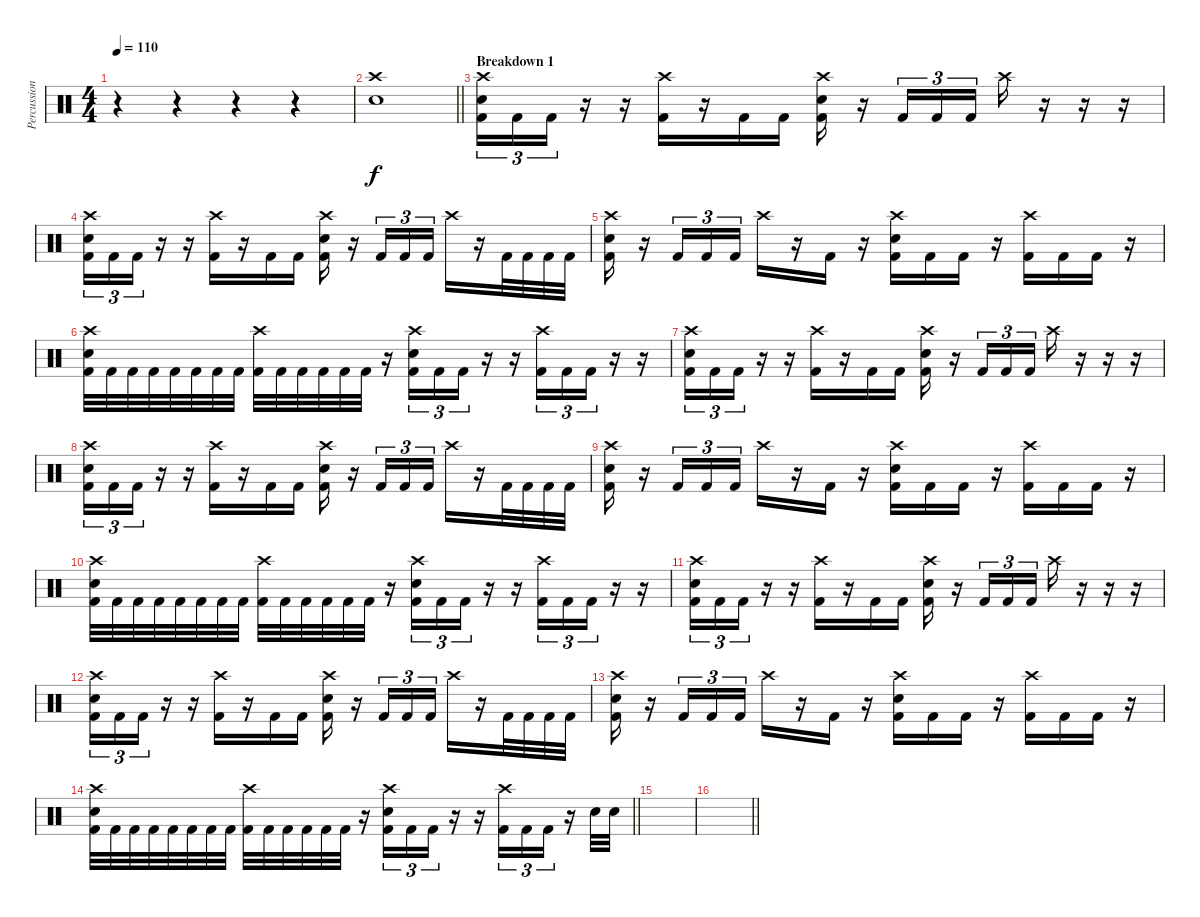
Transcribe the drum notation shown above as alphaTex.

\track ("Percussion" "Percussion") {instrument percussion}
\staff {score}
\articulation defaults
\ts (4 4)
\tempo 110
\clef neutral
\ks c
r.4{dy f} r.4 r.4 r.4 |
\barLineRight lightlight
("Crash high (hit)" "Electric Snare (hit)").1 |
\section ("" "Breakdown 1")
("Crash high (hit)" "Electric Snare (hit)" "Kick (hit) 2").16{tu (3 2)} "Kick (hit) 2".16{tu (3 2)} "Kick (hit) 2".16{tu (3 2)} r.16 r.16 ("Crash high (hit)" "Kick (hit) 2").16 r.16 "Kick (hit) 2".16 "Kick (hit) 2".16 ("Crash high (hit)" "Electric Snare (hit)" "Kick (hit) 2").16 r.16 "Kick (hit) 2".16{tu (3 2)} "Kick (hit) 2".16{tu (3 2)} "Kick (hit) 2".16{tu (3 2)} "Crash high (hit)".16 r.16 r.16 r.16 |
("Crash high (hit)" "Electric Snare (hit)" "Kick (hit) 2").16{tu (3 2)} "Kick (hit) 2".16{tu (3 2)} "Kick (hit) 2".16{tu (3 2)} r.16 r.16 ("Crash high (hit)" "Kick (hit) 2").16 r.16 "Kick (hit) 2".16 "Kick (hit) 2".16 ("Crash high (hit)" "Electric Snare (hit)" "Kick (hit) 2").16 r.16 "Kick (hit) 2".16{tu (3 2)} "Kick (hit) 2".16{tu (3 2)} "Kick (hit) 2".16{tu (3 2)} "Crash high (hit)".16 r.16 "Kick (hit) 2".32 "Kick (hit) 2".32 "Kick (hit) 2".32 "Kick (hit) 2".32 |
("Crash high (hit)" "Electric Snare (hit)" "Kick (hit) 2").16 r.16 "Kick (hit) 2".16{tu (3 2)} "Kick (hit) 2".16{tu (3 2)} "Kick (hit) 2".16{tu (3 2)} "Crash high (hit)".16 r.16 "Kick (hit) 2".16 r.16 ("Crash high (hit)" "Electric Snare (hit)" "Kick (hit) 2").16 "Kick (hit) 2".16 "Kick (hit) 2".16 r.16 ("Crash high (hit)" "Kick (hit) 2").16 "Kick (hit) 2".16 "Kick (hit) 2".16 r.16 |
("Crash high (hit)" "Electric Snare (hit)" "Kick (hit) 2").32 "Kick (hit) 2".32 "Kick (hit) 2".32 "Kick (hit) 2".32 "Kick (hit) 2".32 "Kick (hit) 2".32 "Kick (hit) 2".32 "Kick (hit) 2".32 ("Crash high (hit)" "Kick (hit) 2").32 "Kick (hit) 2".32 "Kick (hit) 2".32 "Kick (hit) 2".32 "Kick (hit) 2".32 "Kick (hit) 2".32 r.16 ("Crash high (hit)" "Electric Snare (hit)" "Kick (hit) 2").16{tu (3 2)} "Kick (hit) 2".16{tu (3 2)} "Kick (hit) 2".16{tu (3 2)} r.16 r.16 ("Crash high (hit)" "Kick (hit) 2").16{tu (3 2)} "Kick (hit) 2".16{tu (3 2)} "Kick (hit) 2".16{tu (3 2)} r.16 r.16 |
("Crash high (hit)" "Electric Snare (hit)" "Kick (hit) 2").16{tu (3 2)} "Kick (hit) 2".16{tu (3 2)} "Kick (hit) 2".16{tu (3 2)} r.16 r.16 ("Crash high (hit)" "Kick (hit) 2").16 r.16 "Kick (hit) 2".16 "Kick (hit) 2".16 ("Crash high (hit)" "Electric Snare (hit)" "Kick (hit) 2").16 r.16 "Kick (hit) 2".16{tu (3 2)} "Kick (hit) 2".16{tu (3 2)} "Kick (hit) 2".16{tu (3 2)} "Crash high (hit)".16 r.16 r.16 r.16 |
("Crash high (hit)" "Electric Snare (hit)" "Kick (hit) 2").16{tu (3 2)} "Kick (hit) 2".16{tu (3 2)} "Kick (hit) 2".16{tu (3 2)} r.16 r.16 ("Crash high (hit)" "Kick (hit) 2").16 r.16 "Kick (hit) 2".16 "Kick (hit) 2".16 ("Crash high (hit)" "Electric Snare (hit)" "Kick (hit) 2").16 r.16 "Kick (hit) 2".16{tu (3 2)} "Kick (hit) 2".16{tu (3 2)} "Kick (hit) 2".16{tu (3 2)} "Crash high (hit)".16 r.16 "Kick (hit) 2".32 "Kick (hit) 2".32 "Kick (hit) 2".32 "Kick (hit) 2".32 |
("Crash high (hit)" "Electric Snare (hit)" "Kick (hit) 2").16 r.16 "Kick (hit) 2".16{tu (3 2)} "Kick (hit) 2".16{tu (3 2)} "Kick (hit) 2".16{tu (3 2)} "Crash high (hit)".16 r.16 "Kick (hit) 2".16 r.16 ("Crash high (hit)" "Electric Snare (hit)" "Kick (hit) 2").16 "Kick (hit) 2".16 "Kick (hit) 2".16 r.16 ("Crash high (hit)" "Kick (hit) 2").16 "Kick (hit) 2".16 "Kick (hit) 2".16 r.16 |
("Crash high (hit)" "Electric Snare (hit)" "Kick (hit) 2").32 "Kick (hit) 2".32 "Kick (hit) 2".32 "Kick (hit) 2".32 "Kick (hit) 2".32 "Kick (hit) 2".32 "Kick (hit) 2".32 "Kick (hit) 2".32 ("Crash high (hit)" "Kick (hit) 2").32 "Kick (hit) 2".32 "Kick (hit) 2".32 "Kick (hit) 2".32 "Kick (hit) 2".32 "Kick (hit) 2".32 r.16 ("Crash high (hit)" "Electric Snare (hit)" "Kick (hit) 2").16{tu (3 2)} "Kick (hit) 2".16{tu (3 2)} "Kick (hit) 2".16{tu (3 2)} r.16 r.16 ("Crash high (hit)" "Kick (hit) 2").16{tu (3 2)} "Kick (hit) 2".16{tu (3 2)} "Kick (hit) 2".16{tu (3 2)} r.16 r.16 |
("Crash high (hit)" "Electric Snare (hit)" "Kick (hit) 2").16{tu (3 2)} "Kick (hit) 2".16{tu (3 2)} "Kick (hit) 2".16{tu (3 2)} r.16 r.16 ("Crash high (hit)" "Kick (hit) 2").16 r.16 "Kick (hit) 2".16 "Kick (hit) 2".16 ("Crash high (hit)" "Electric Snare (hit)" "Kick (hit) 2").16 r.16 "Kick (hit) 2".16{tu (3 2)} "Kick (hit) 2".16{tu (3 2)} "Kick (hit) 2".16{tu (3 2)} "Crash high (hit)".16 r.16 r.16 r.16 |
("Crash high (hit)" "Electric Snare (hit)" "Kick (hit) 2").16{tu (3 2)} "Kick (hit) 2".16{tu (3 2)} "Kick (hit) 2".16{tu (3 2)} r.16 r.16 ("Crash high (hit)" "Kick (hit) 2").16 r.16 "Kick (hit) 2".16 "Kick (hit) 2".16 ("Crash high (hit)" "Electric Snare (hit)" "Kick (hit) 2").16 r.16 "Kick (hit) 2".16{tu (3 2)} "Kick (hit) 2".16{tu (3 2)} "Kick (hit) 2".16{tu (3 2)} "Crash high (hit)".16 r.16 "Kick (hit) 2".32 "Kick (hit) 2".32 "Kick (hit) 2".32 "Kick (hit) 2".32 |
("Crash high (hit)" "Electric Snare (hit)" "Kick (hit) 2").16 r.16 "Kick (hit) 2".16{tu (3 2)} "Kick (hit) 2".16{tu (3 2)} "Kick (hit) 2".16{tu (3 2)} "Crash high (hit)".16 r.16 "Kick (hit) 2".16 r.16 ("Crash high (hit)" "Electric Snare (hit)" "Kick (hit) 2").16 "Kick (hit) 2".16 "Kick (hit) 2".16 r.16 ("Crash high (hit)" "Kick (hit) 2").16 "Kick (hit) 2".16 "Kick (hit) 2".16 r.16 |
\barLineRight lightlight
("Crash high (hit)" "Electric Snare (hit)" "Kick (hit) 2").32 "Kick (hit) 2".32 "Kick (hit) 2".32 "Kick (hit) 2".32 "Kick (hit) 2".32 "Kick (hit) 2".32 "Kick (hit) 2".32 "Kick (hit) 2".32 ("Crash high (hit)" "Kick (hit) 2").32 "Kick (hit) 2".32 "Kick (hit) 2".32 "Kick (hit) 2".32 "Kick (hit) 2".32 "Kick (hit) 2".32 r.16 ("Crash high (hit)" "Electric Snare (hit)" "Kick (hit) 2").16{tu (3 2)} "Kick (hit) 2".16{tu (3 2)} "Kick (hit) 2".16{tu (3 2)} r.16 r.16 ("Crash high (hit)" "Kick (hit) 2").16{tu (3 2)} "Kick (hit) 2".16{tu (3 2)} "Kick (hit) 2".16{tu (3 2)} r.16 "Electric Snare (hit)".32 "Electric Snare (hit)".32 |
|
\barLineRight lightlight
